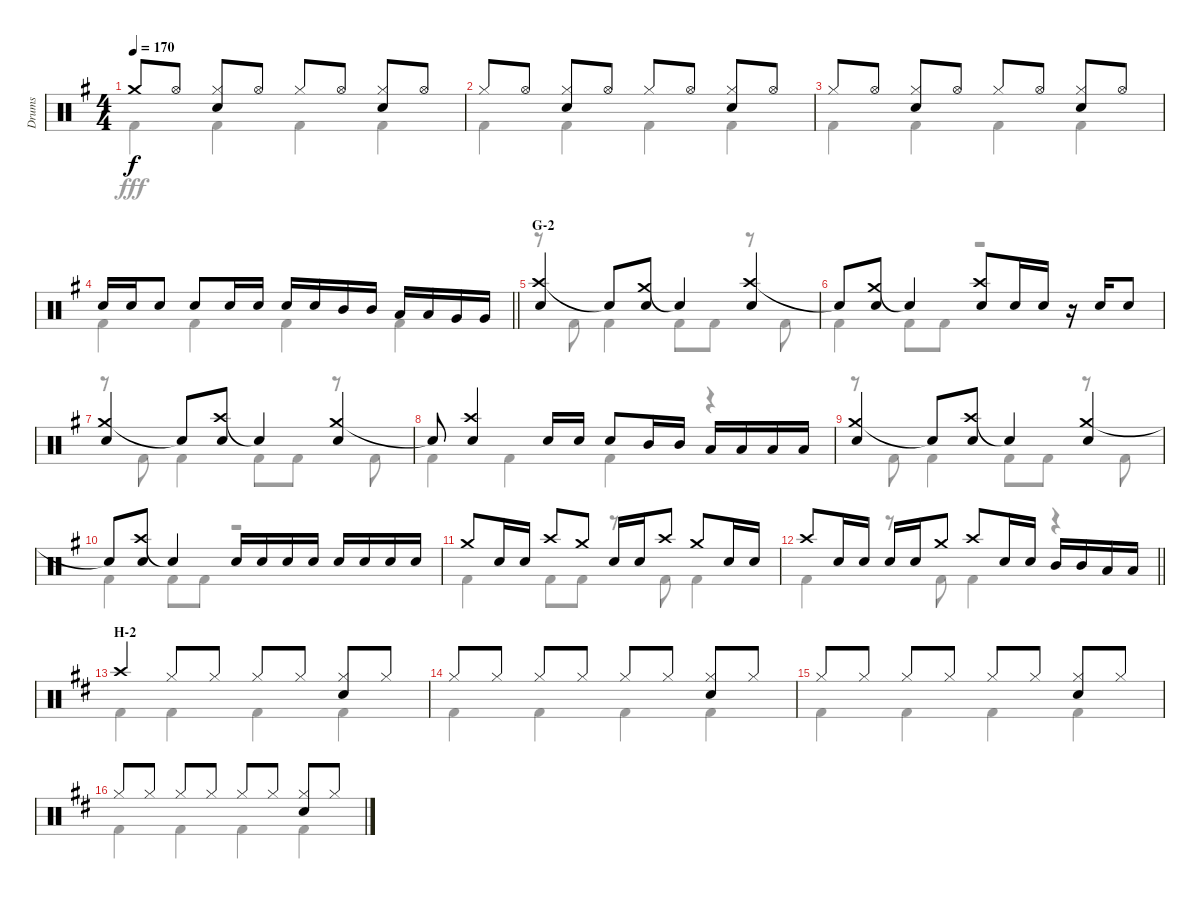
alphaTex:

\track ("Drums" "Drums") {instrument percussion}
\staff {score}
\articulation defaults
\voice
\ts (4 4)
\tempo 170
\clef neutral
\ks g "Crash medium (hit)".8{dy f} "Hi-Hat (open)".8
("Hi-Hat (closed)" "Snare (hit) 2").8 "Hi-Hat (open)".8 "Hi-Hat (closed)".8 "Hi-Hat (open)".8 ("Hi-Hat (closed)" "Snare (hit) 2").8 "Hi-Hat (open)".8 |
"Hi-Hat (closed)".8 "Hi-Hat (open)".8 ("Hi-Hat (closed)" "Snare (hit) 2").8 "Hi-Hat (open)".8 "Hi-Hat (closed)".8 "Hi-Hat (open)".8 ("Hi-Hat (closed)" "Snare (hit) 2").8 "Hi-Hat (open)".8 |
"Hi-Hat (closed)".8 "Hi-Hat (open)".8 ("Hi-Hat (closed)" "Snare (hit) 2").8 "Hi-Hat (open)".8 "Hi-Hat (closed)".8 "Hi-Hat (open)".8 ("Hi-Hat (closed)" "Snare (hit) 2").8 "Hi-Hat (open)".8 |
\barLineRight lightlight "Snare (hit) 2".16 "Snare (hit) 2".16 "Snare (hit) 2".8 "Snare (hit) 2".8 "Snare (hit) 2".16 "Snare (hit) 2".16 "Snare (hit) 2".16 "Snare (hit) 2".16 "Mid Tom (hit)".16 "Mid Tom (hit)".16 "Low Tom (hit)".16 "Low Tom (hit)".16 "Very Low Tom (hit)".16 "Very Low Tom (hit)".16
|
\section ("" "G-2")
("Crash high (hit)" "Snare (hit) 2").4 "Snare (hit)"{t}.8 ("Crash medium (hit)" "Snare (hit) 2").8 "Snare (hit)"{t}.4 ("Crash high (hit)" "Snare (hit) 2").4 |
"Snare (hit)"{t}.8 ("Crash medium (hit)" "Snare (hit) 2").8 "Snare (hit)"{t}.4 ("Crash high (hit)" "Snare (hit) 2").8 "Snare (hit) 2".16 "Snare (hit) 2".16 r.16 "Snare (hit) 2".16 "Snare (hit) 2".8 |
("Crash medium (hit)" "Snare (hit) 2").4 "Snare (hit)"{t}.8 ("Crash high (hit)" "Snare (hit) 2").8 "Snare (hit)"{t}.4 ("Crash medium (hit)" "Snare (hit) 2").4 |
"Snare (hit)"{t}.8 ("Crash high (hit)" "Snare (hit) 2").4 "Snare (hit) 2".16 "Snare (hit) 2".16 "Snare (hit) 2".8 "Mid Tom (hit)".16 "Mid Tom (hit)".16 "Low Tom (hit)".16 "Low Tom (hit)".16 "Low Tom (hit)".16 "Low Tom (hit)".16 |
("Crash medium (hit)" "Snare (hit) 2").4 "Snare (hit)"{t}.8 ("Crash high (hit)" "Snare (hit) 2").8 "Snare (hit)"{t}.4 ("Crash medium (hit)" "Snare (hit) 2").4 |
"Snare (hit)"{t}.8 ("Crash high (hit)" "Snare (hit) 2").8 "Snare (hit)"{t}.4 "Snare (hit) 2".16 "Snare (hit) 2".16 "Snare (hit) 2".16 "Snare (hit) 2".16 "Snare (hit) 2".16 "Snare (hit) 2".16 "Snare (hit) 2".16 "Snare (hit) 2".16 |
"Crash medium (hit)".8 "Snare (hit) 2".16 "Snare (hit) 2".16 "Crash high (hit)".8 "Crash medium (hit)".8 "Snare (hit) 2".16 "Snare (hit) 2".16 "Crash high (hit)".8 "Crash medium (hit)".8 "Snare (hit) 2".16 "Snare (hit) 2".16 |
\barLineRight lightlight "Crash high (hit)".8 "Snare (hit) 2".16 "Snare (hit) 2".16 "Snare (hit) 2".16 "Snare (hit) 2".16 "Crash medium (hit)".8 "Crash high (hit)".8 "Snare (hit) 2".16 "Snare (hit) 2".16 "Mid Tom (hit)".16 "Mid Tom (hit)".16 "Low Tom (hit)".16 "Low Tom (hit)".16
|
\section ("" "H-2")
\ks d "Crash high (hit)".4 "Hi-Hat (closed)".8 "Hi-Hat (closed)".8 "Hi-Hat (closed)".8 "Hi-Hat (closed)".8
("Hi-Hat (closed)" "Snare (hit) 2").8 "Hi-Hat (closed)".8 |
"Hi-Hat (closed)".8 "Hi-Hat (closed)".8 "Hi-Hat (closed)".8 "Hi-Hat (closed)".8 "Hi-Hat (closed)".8 "Hi-Hat (closed)".8 ("Hi-Hat (closed)" "Snare (hit) 2").8 "Hi-Hat (closed)".8 |
"Hi-Hat (closed)".8 "Hi-Hat (closed)".8 "Hi-Hat (closed)".8 "Hi-Hat (closed)".8 "Hi-Hat (closed)".8 "Hi-Hat (closed)".8 ("Hi-Hat (closed)" "Snare (hit) 2").8 "Hi-Hat (closed)".8 |
"Hi-Hat (closed)".8 "Hi-Hat (closed)".8 "Hi-Hat (closed)".8 "Hi-Hat (closed)".8 "Hi-Hat (closed)".8 "Hi-Hat (closed)".8 ("Hi-Hat (closed)" "Snare (hit) 2").8 "Hi-Hat (closed)".8
\voice
\clef neutral
\ottava regular
\simile none
\ks g "Kick (hit) 2".4{dy fff} "Kick (hit) 2".4 "Kick (hit) 2".4 "Kick (hit) 2".4
|
"Kick (hit) 2".4 "Kick (hit) 2".4 "Kick (hit) 2".4 "Kick (hit) 2".4 |
"Kick (hit) 2".4 "Kick (hit) 2".4 "Kick (hit) 2".4 "Kick (hit) 2".4 |
\barLineRight lightlight "Kick (hit) 2".4 "Kick (hit) 2".4 "Kick (hit) 2".4 "Kick (hit) 2".4
|
r.8 "Kick (hit) 2".8 "Kick (hit) 2".4 "Kick (hit) 2".8 "Kick (hit) 2".8 r.8 "Kick (hit) 2".8 |
"Kick (hit) 2".4 "Kick (hit) 2".8 "Kick (hit) 2".8 r.2 |
r.8 "Kick (hit) 2".8 "Kick (hit) 2".4 "Kick (hit) 2".8 "Kick (hit) 2".8 r.8 "Kick (hit) 2".8 |
"Kick (hit) 2".4 "Kick (hit) 2".4 "Kick (hit) 2".4 r.4 |
r.8 "Kick (hit) 2".8 "Kick (hit) 2".4 "Kick (hit) 2".8 "Kick (hit) 2".8 r.8 "Kick (hit) 2".8 |
"Kick (hit) 2".4 "Kick (hit) 2".8 "Kick (hit) 2".8 r.2 |
"Kick (hit) 2".4 "Kick (hit) 2".8 "Kick (hit) 2".8 r.8 "Kick (hit) 2".8 "Kick (hit) 2".4 |
\barLineRight lightlight "Kick (hit) 2".4
r.8 "Kick (hit) 2".8 "Kick (hit) 2".4 r.4 |
\ks d "Kick (hit) 2".4 "Kick (hit) 2".4 "Kick (hit) 2".4 "Kick (hit) 2".4
|
"Kick (hit) 2".4 "Kick (hit) 2".4 "Kick (hit) 2".4 "Kick (hit) 2".4 |
"Kick (hit) 2".4 "Kick (hit) 2".4 "Kick (hit) 2".4 "Kick (hit) 2".4 |
"Kick (hit) 2".4 "Kick (hit) 2".4 "Kick (hit) 2".4 "Kick (hit) 2".4
